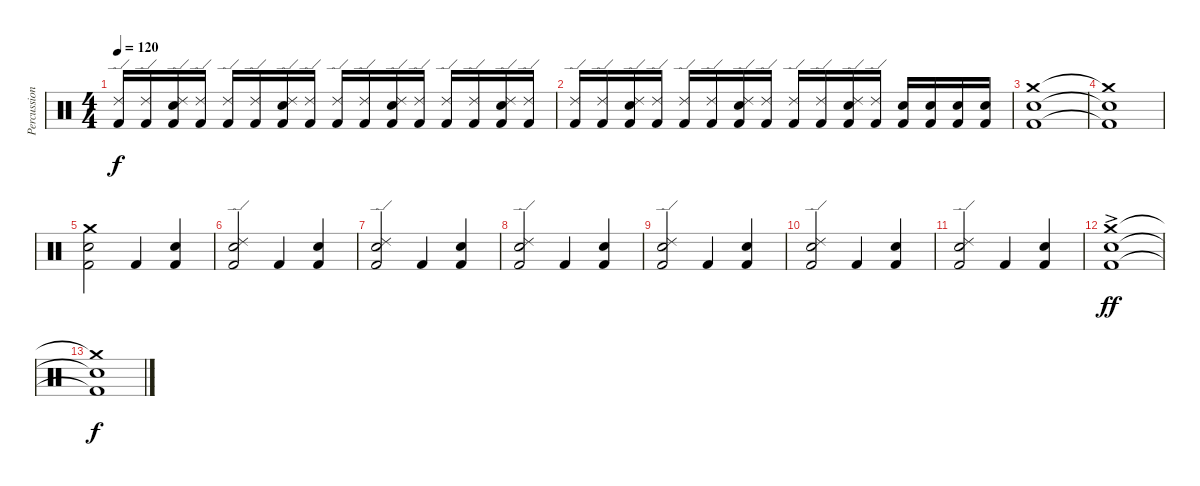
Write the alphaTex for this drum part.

\track ("Percussion" "Percussion") {instrument percussion}
\staff {score}
\articulation defaults
\ts (4 4)
\tempo 120
\clef neutral
\ks c
("Kick (hit) 2" "Ride (edge) 2").16{dy f} ("Kick (hit) 2" "Ride (edge) 2").16 ("Kick (hit) 2" "Snare (hit) 2" "Ride (edge) 2").16 ("Kick (hit) 2" "Ride (edge) 2").16 ("Kick (hit) 2" "Ride (edge) 2").16 ("Kick (hit) 2" "Ride (edge) 2").16 ("Kick (hit) 2" "Snare (hit) 2" "Ride (edge) 2").16 ("Kick (hit) 2" "Ride (edge) 2").16 ("Kick (hit) 2" "Ride (edge) 2").16 ("Kick (hit) 2" "Ride (edge) 2").16 ("Kick (hit) 2" "Snare (hit) 2" "Ride (edge) 2").16 ("Kick (hit) 2" "Ride (edge) 2").16 ("Kick (hit) 2" "Ride (edge) 2").16 ("Kick (hit) 2" "Ride (edge) 2").16 ("Kick (hit) 2" "Snare (hit) 2" "Ride (edge) 2").16 ("Kick (hit) 2" "Ride (edge) 2").16 |
("Kick (hit) 2" "Ride (edge) 2").16 ("Kick (hit) 2" "Ride (edge) 2").16 ("Kick (hit) 2" "Snare (hit) 2" "Ride (edge) 2").16 ("Kick (hit) 2" "Ride (edge) 2").16 ("Kick (hit) 2" "Ride (edge) 2").16 ("Kick (hit) 2" "Ride (edge) 2").16 ("Kick (hit) 2" "Snare (hit) 2" "Ride (edge) 2").16 ("Kick (hit) 2" "Ride (edge) 2").16 ("Kick (hit) 2" "Ride (edge) 2").16 ("Kick (hit) 2" "Ride (edge) 2").16 ("Kick (hit) 2" "Snare (hit) 2" "Ride (edge) 2").16 ("Kick (hit) 2" "Ride (edge) 2").16 ("Kick (hit) 2" "Snare (hit) 2").16 ("Kick (hit) 2" "Snare (hit) 2").16 ("Kick (hit) 2" "Snare (hit) 2").16 ("Kick (hit) 2" "Snare (hit) 2").16 |
("Kick (hit) 2" "Snare (hit) 2" "Crash medium (hit)").1 |
("Kick (hit) 2"{t} "Snare (hit) 2"{t} "Crash medium (hit)"{t}).1 |
("Kick (hit) 2" "Snare (hit) 2" "Crash medium (hit)").2 "Kick (hit) 2".4 ("Kick (hit) 2" "Snare (hit) 2").4 |
("Kick (hit) 2" "Snare (hit) 2" "Ride (edge) 2").2 "Kick (hit) 2".4 ("Kick (hit) 2" "Snare (hit) 2").4 |
("Kick (hit) 2" "Snare (hit) 2" "Ride (edge) 2").2 "Kick (hit) 2".4 ("Kick (hit) 2" "Snare (hit) 2").4 |
("Kick (hit) 2" "Snare (hit) 2" "Ride (edge) 2").2 "Kick (hit) 2".4 ("Kick (hit) 2" "Snare (hit) 2").4 |
("Kick (hit) 2" "Snare (hit) 2" "Ride (edge) 2").2 "Kick (hit) 2".4 ("Kick (hit) 2" "Snare (hit) 2").4 |
("Kick (hit) 2" "Snare (hit) 2" "Ride (edge) 2").2 "Kick (hit) 2".4 ("Kick (hit) 2" "Snare (hit) 2").4 |
("Kick (hit) 2" "Snare (hit) 2" "Ride (edge) 2").2 "Kick (hit) 2".4 ("Kick (hit) 2" "Snare (hit) 2").4 |
("Kick (hit) 2" "Snare (hit) 2" "Crash medium (hit)"{ac}).1{dy ff} |
("Kick (hit) 2"{t} "Snare (hit) 2"{t} "Crash medium (hit)"{t}).1{dy f}
